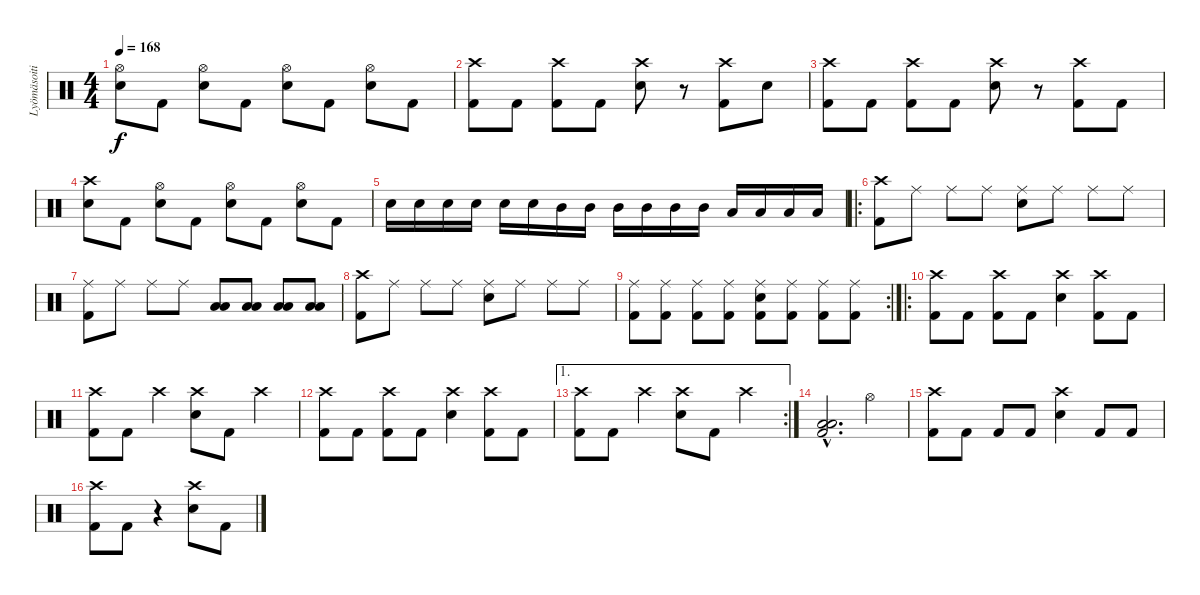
\track ("Lyömäsoitin" "Lyömäsoiti") {instrument percussion}
\staff {score}
\articulation defaults
\ts (4 4)
\tempo 168
\clef neutral
\ks c
("Electric Snare (hit)" "Hi-Hat (open)").8{dy f} "Kick (hit) 2".8 ("Electric Snare (hit)" "Hi-Hat (open)").8 "Kick (hit) 2".8 ("Electric Snare (hit)" "Hi-Hat (open)").8 "Kick (hit) 2".8 ("Electric Snare (hit)" "Hi-Hat (open)").8 "Kick (hit) 2".8 |
("Kick (hit) 2" "Crash high (hit)").8 "Kick (hit) 2".8 ("Kick (hit) 2" "Crash high (hit)").8 "Kick (hit) 2".8 ("Electric Snare (hit)" "Crash high (hit)").8 r.8 ("Kick (hit) 2" "Crash high (hit)").8 "Electric Snare (hit)".8 |
("Kick (hit) 2" "Crash high (hit)").8 "Kick (hit) 2".8 ("Kick (hit) 2" "Crash high (hit)").8 "Kick (hit) 2".8 ("Electric Snare (hit)" "Crash high (hit)").8 r.8 ("Kick (hit) 2" "Crash high (hit)").8 "Kick (hit) 2".8 |
("Electric Snare (hit)" "Crash high (hit)").8 "Kick (hit) 2".8 ("Electric Snare (hit)" "Hi-Hat (open)").8 "Kick (hit) 2".8 ("Electric Snare (hit)" "Hi-Hat (open)").8 "Kick (hit) 2".8 ("Electric Snare (hit)" "Hi-Hat (open)").8 "Kick (hit) 2".8 |
"Electric Snare (hit)".16 "Electric Snare (hit)".16 "Electric Snare (hit)".16 "Electric Snare (hit)".16 "Electric Snare (hit)".16 "Electric Snare (hit)".16 "Mid Tom (hit)".16 "Mid Tom (hit)".16 "Mid Tom (hit)".16 "Mid Tom (hit)".16 "Mid Tom (hit)".16 "Mid Tom (hit)".16 "Low Tom (hit)".16 "Low Tom (hit)".16 "Low Tom (hit)".16 "Low Tom (hit)".16 |
\ro
("Kick (hit) 2" "Crash high (hit)").8 "Ride (middle)".8 "Ride (middle)".8 "Ride (middle)".8 ("Electric Snare (hit)" "Ride (middle)").8 "Ride (middle)".8 "Ride (middle)".8 "Ride (middle)".8 |
("Kick (hit) 2" "Ride (middle)").8 "Ride (middle)".8 "Ride (middle)".8 "Ride (middle)".8 ("Low Tom (hit)" "Low Floor Tom (hit)").8 ("Low Tom (hit)" "Low Floor Tom (hit)").8 ("Low Tom (hit)" "Low Floor Tom (hit)").8 ("Low Tom (hit)" "Low Floor Tom (hit)").8 |
("Kick (hit) 2" "Crash high (hit)").8 "Ride (middle)".8 "Ride (middle)".8 "Ride (middle)".8 ("Electric Snare (hit)" "Ride (middle)").8 "Ride (middle)".8 "Ride (middle)".8 "Ride (middle)".8 |
\rc 2
("Kick (hit) 2" "Ride (middle)").8 ("Kick (hit) 2" "Ride (middle)").8 ("Kick (hit) 2" "Ride (middle)").8 ("Kick (hit) 2" "Ride (middle)").8 ("Kick (hit) 2" "Electric Snare (hit)" "Ride (middle)").8 ("Kick (hit) 2" "Ride (middle)").8 ("Kick (hit) 2" "Ride (middle)").8 ("Kick (hit) 2" "Ride (middle)").8 |
\ro
("Kick (hit) 2" "Crash high (hit)").8 "Kick (hit) 2".8 ("Kick (hit) 2" "Crash high (hit)").8 "Kick (hit) 2".8 ("Electric Snare (hit)" "Crash high (hit)").4 ("Kick (hit) 2" "Crash high (hit)").8 "Kick (hit) 2".8 |
("Kick (hit) 2" "Crash high (hit)").8 "Kick (hit) 2".8 "Crash high (hit)".4 ("Electric Snare (hit)" "Crash high (hit)").8 "Kick (hit) 2".8 "Crash high (hit)".4 |
("Kick (hit) 2" "Crash high (hit)").8 "Kick (hit) 2".8 ("Kick (hit) 2" "Crash high (hit)").8 "Kick (hit) 2".8 ("Electric Snare (hit)" "Crash high (hit)").4 ("Kick (hit) 2" "Crash high (hit)").8 "Kick (hit) 2".8 |
\ae 1
\rc 2
("Kick (hit) 2" "Crash high (hit)").8 "Kick (hit) 2".8 "Crash high (hit)".4 ("Electric Snare (hit)" "Crash high (hit)").8 "Kick (hit) 2".8 "Crash high (hit)".4 |
("Kick (hit) 2"{hac} "Low Floor Tom (hit)"{hac} "Low Tom (hit)"{hac}).2{d} "Hi-Hat (open)".4 |
("Kick (hit) 2" "Crash high (hit)").8 "Kick (hit) 2".8 "Kick (hit) 2".8 "Kick (hit) 2".8 ("Electric Snare (hit)" "Crash high (hit)").4 "Kick (hit) 2".8 "Kick (hit) 2".8 |
("Kick (hit) 2" "Crash high (hit)").8 "Kick (hit) 2".8 r.4 ("Electric Snare (hit)" "Crash high (hit)").8 "Kick (hit) 2".8
